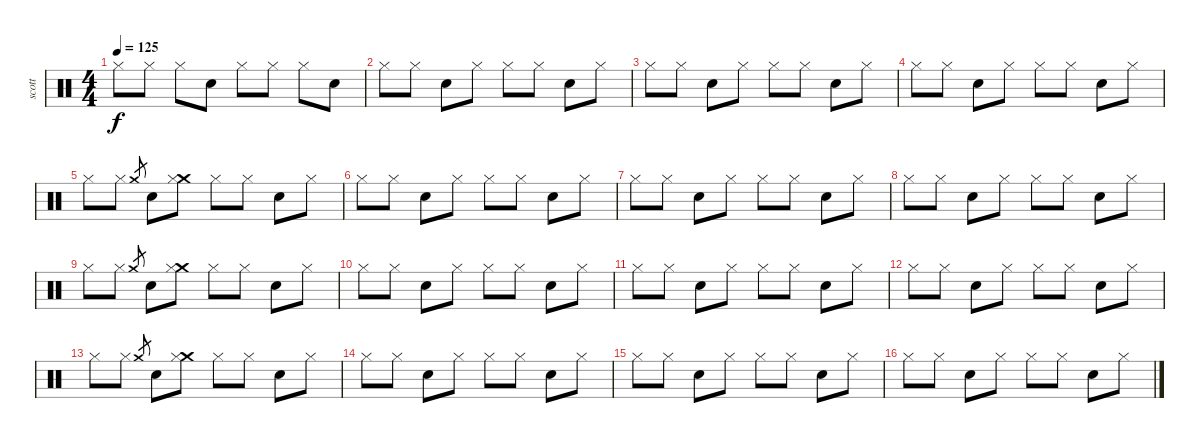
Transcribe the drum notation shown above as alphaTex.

\track ("scott" "scott") {instrument percussion}
\staff {score}
\articulation defaults
\ts (4 4)
\tempo 125
\clef neutral
\ks c "Hi-Hat (closed)".8{dy f} "Hi-Hat (closed)".8 "Hi-Hat (closed)".8 "Snare (hit) 2".8 "Hi-Hat (closed)".8 "Hi-Hat (closed)".8 "Hi-Hat (closed)".8 "Snare (hit) 2".8
|
"Hi-Hat (closed)".8 "Hi-Hat (closed)".8 "Snare (hit) 2".8 "Hi-Hat (closed)".8 "Hi-Hat (closed)".8 "Hi-Hat (closed)".8 "Snare (hit) 2".8 "Hi-Hat (closed)".8 |
"Hi-Hat (closed)".8 "Hi-Hat (closed)".8 "Snare (hit) 2".8 "Hi-Hat (closed)".8 "Hi-Hat (closed)".8 "Hi-Hat (closed)".8 "Snare (hit) 2".8 "Hi-Hat (closed)".8 |
"Hi-Hat (closed)".8 "Hi-Hat (closed)".8 "Snare (hit) 2".8 "Hi-Hat (closed)".8 "Hi-Hat (closed)".8 "Hi-Hat (closed)".8 "Snare (hit) 2".8 "Hi-Hat (closed)".8 |
"Hi-Hat (closed)".8 "Hi-Hat (closed)".8 "Crash medium (hit)".8{gr} "Snare (hit) 2".8 ("Crash medium (hit)" "Hi-Hat (closed)").8 "Hi-Hat (closed)".8 "Hi-Hat (closed)".8 "Snare (hit) 2".8 "Hi-Hat (closed)".8 |
"Hi-Hat (closed)".8 "Hi-Hat (closed)".8 "Snare (hit) 2".8 "Hi-Hat (closed)".8 "Hi-Hat (closed)".8 "Hi-Hat (closed)".8 "Snare (hit) 2".8 "Hi-Hat (closed)".8 |
"Hi-Hat (closed)".8 "Hi-Hat (closed)".8 "Snare (hit) 2".8 "Hi-Hat (closed)".8 "Hi-Hat (closed)".8 "Hi-Hat (closed)".8 "Snare (hit) 2".8 "Hi-Hat (closed)".8 |
"Hi-Hat (closed)".8 "Hi-Hat (closed)".8 "Snare (hit) 2".8 "Hi-Hat (closed)".8 "Hi-Hat (closed)".8 "Hi-Hat (closed)".8 "Snare (hit) 2".8 "Hi-Hat (closed)".8 |
"Hi-Hat (closed)".8 "Hi-Hat (closed)".8 "Crash medium (hit)".8{gr} "Snare (hit) 2".8 ("Crash medium (hit)" "Hi-Hat (closed)").8 "Hi-Hat (closed)".8 "Hi-Hat (closed)".8 "Snare (hit) 2".8 "Hi-Hat (closed)".8 |
"Hi-Hat (closed)".8 "Hi-Hat (closed)".8 "Snare (hit) 2".8 "Hi-Hat (closed)".8 "Hi-Hat (closed)".8 "Hi-Hat (closed)".8 "Snare (hit) 2".8 "Hi-Hat (closed)".8 |
"Hi-Hat (closed)".8 "Hi-Hat (closed)".8 "Snare (hit) 2".8 "Hi-Hat (closed)".8 "Hi-Hat (closed)".8 "Hi-Hat (closed)".8 "Snare (hit) 2".8 "Hi-Hat (closed)".8 |
"Hi-Hat (closed)".8 "Hi-Hat (closed)".8 "Snare (hit) 2".8 "Hi-Hat (closed)".8 "Hi-Hat (closed)".8 "Hi-Hat (closed)".8 "Snare (hit) 2".8 "Hi-Hat (closed)".8 |
"Hi-Hat (closed)".8 "Hi-Hat (closed)".8 "Crash medium (hit)".8{gr} "Snare (hit) 2".8 ("Crash medium (hit)" "Hi-Hat (closed)").8 "Hi-Hat (closed)".8 "Hi-Hat (closed)".8 "Snare (hit) 2".8 "Hi-Hat (closed)".8 |
"Hi-Hat (closed)".8 "Hi-Hat (closed)".8 "Snare (hit) 2".8 "Hi-Hat (closed)".8 "Hi-Hat (closed)".8 "Hi-Hat (closed)".8 "Snare (hit) 2".8 "Hi-Hat (closed)".8 |
"Hi-Hat (closed)".8 "Hi-Hat (closed)".8 "Snare (hit) 2".8 "Hi-Hat (closed)".8 "Hi-Hat (closed)".8 "Hi-Hat (closed)".8 "Snare (hit) 2".8 "Hi-Hat (closed)".8 |
"Hi-Hat (closed)".8 "Hi-Hat (closed)".8 "Snare (hit) 2".8 "Hi-Hat (closed)".8 "Hi-Hat (closed)".8 "Hi-Hat (closed)".8 "Snare (hit) 2".8 "Hi-Hat (closed)".8
